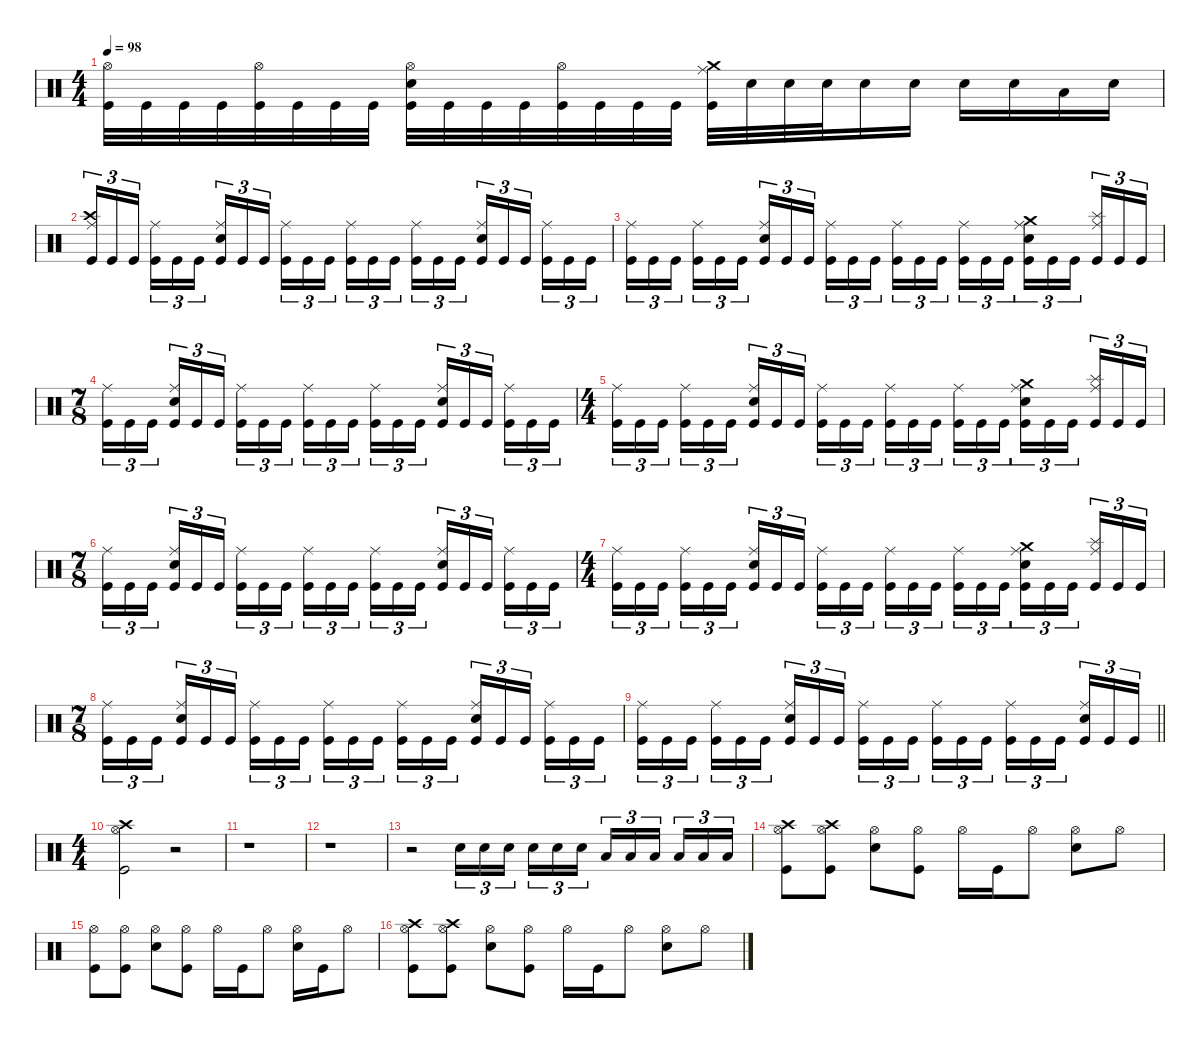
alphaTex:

\defaultSystemsLayout 4
\hideDynamics
\bracketExtendMode nobrackets
\singleTrackTrackNamePolicy hidden
\multiTrackTrackNamePolicy hidden
\firstSystemTrackNameMode fullname
\otherSystemsTrackNameOrientation horizontal
\track ("Drums" "drm.") {instrument percussion}
\staff {score}
\articulation defaults
\ts (4 4)
\tempo 98
\clef neutral
\ks aminor
("Hi-Hat (open)" "Kick (hit)").32{dy f beam Down} "Kick (hit)".32{beam Down} "Kick (hit)".32{beam Down} "Kick (hit)".32{beam Down} ("Hi-Hat (open)" "Kick (hit)").32{beam Down} "Kick (hit)".32{beam Down} "Kick (hit)".32{beam Down} "Kick (hit)".32{beam Down} ("Hi-Hat (open)" "Snare (hit) 2" "Kick (hit)").32{beam Down} "Kick (hit)".32{beam Down} "Kick (hit)".32{beam Down} "Kick (hit)".32{beam Down} ("Hi-Hat (open)" "Kick (hit)").32{beam Down} "Kick (hit)".32{beam Down} "Kick (hit)".32{beam Down} "Kick (hit)".32{beam Down} ("Crash medium (hit)" "Ride (middle)" "Kick (hit)").32{beam Down} "Snare (hit) 2".32{dy mf beam Down} "Snare (hit) 2".32{beam Down} "Snare (hit) 2".32{dy f beam Down} "Snare (hit) 2".16{beam Down} "Snare (hit) 2".16{beam Down} "Snare (hit) 2".16{beam Down} "Snare (hit) 2".16{beam Down} "Low Tom (hit)".16{beam Down} "Snare (hit) 2".16{beam Down} |
("Crash high (hit)" "Ride (middle)" "Kick (hit)").16{tu (3 2) beam Up} "Kick (hit)".16{tu (3 2) beam Up} "Kick (hit)".16{tu (3 2) beam Up} ("Ride (middle)" "Kick (hit)").16{tu (3 2) beam Down} "Kick (hit)".16{tu (3 2) beam Down} "Kick (hit)".16{tu (3 2) beam Down} ("Ride (middle)" "Snare (hit) 2" "Kick (hit)").16{tu (3 2) beam Up} "Kick (hit)".16{tu (3 2) beam Up} "Kick (hit)".16{tu (3 2) beam Up} ("Ride (middle)" "Kick (hit)").16{tu (3 2) beam Down} "Kick (hit)".16{tu (3 2) beam Down} "Kick (hit)".16{tu (3 2) beam Down} ("Ride (middle)" "Kick (hit)").16{tu (3 2) beam Down} "Kick (hit)".16{tu (3 2) beam Down} "Kick (hit)".16{tu (3 2) beam Down} ("Ride (middle)" "Kick (hit)").16{tu (3 2) beam Down} "Kick (hit)".16{tu (3 2) beam Down} "Kick (hit)".16{tu (3 2) beam Down} ("Ride (middle)" "Snare (hit) 2" "Kick (hit)").16{tu (3 2) beam Up} "Kick (hit)".16{tu (3 2) beam Up} "Kick (hit)".16{tu (3 2) beam Up} ("Ride (middle)" "Kick (hit)").16{tu (3 2) beam Down} "Kick (hit)".16{tu (3 2) beam Down} "Kick (hit)".16{tu (3 2) beam Down} |
("Ride (middle)" "Kick (hit)").16{tu (3 2) beam Down} "Kick (hit)".16{tu (3 2) beam Down} "Kick (hit)".16{tu (3 2) beam Down} ("Ride (middle)" "Kick (hit)").16{tu (3 2) beam Down} "Kick (hit)".16{tu (3 2) beam Down} "Kick (hit)".16{tu (3 2) beam Down} ("Ride (middle)" "Snare (hit) 2" "Kick (hit)").16{tu (3 2) beam Up} "Kick (hit)".16{tu (3 2) beam Up} "Kick (hit)".16{tu (3 2) beam Up} ("Ride (middle)" "Kick (hit)").16{tu (3 2) beam Down} "Kick (hit)".16{tu (3 2) beam Down} "Kick (hit)".16{tu (3 2) beam Down} ("Ride (middle)" "Kick (hit)").16{tu (3 2) beam Down} "Kick (hit)".16{tu (3 2) beam Down} "Kick (hit)".16{tu (3 2) beam Down} ("Ride (middle)" "Kick (hit)").16{tu (3 2) beam Down} "Kick (hit)".16{tu (3 2) beam Down} "Kick (hit)".16{tu (3 2) beam Down} ("Crash medium (hit)" "Ride (middle)" "Snare (hit) 2" "Kick (hit)").16{tu (3 2) beam Down} "Kick (hit)".16{tu (3 2) beam Down} "Kick (hit)".16{tu (3 2) beam Down} ("Splash (hit)" "Ride (middle)" "Kick (hit)").16{tu (3 2) beam Up} "Kick (hit)".16{tu (3 2) beam Up} "Kick (hit)".16{tu (3 2) beam Up} |
\ts (7 8)
\beaming (8 3 2 2)
("Ride (middle)" "Kick (hit)").16{tu (3 2) beam Down} "Kick (hit)".16{tu (3 2) beam Down} "Kick (hit)".16{tu (3 2) beam Down} ("Ride (middle)" "Snare (hit) 2" "Kick (hit)").16{tu (3 2) beam Up} "Kick (hit)".16{tu (3 2) beam Up} "Kick (hit)".16{tu (3 2) beam Up} ("Ride (middle)" "Kick (hit)").16{tu (3 2) beam Down} "Kick (hit)".16{tu (3 2) beam Down} "Kick (hit)".16{tu (3 2) beam Down} ("Ride (middle)" "Kick (hit)").16{tu (3 2) beam Down} "Kick (hit)".16{tu (3 2) beam Down} "Kick (hit)".16{tu (3 2) beam Down} ("Ride (middle)" "Kick (hit)").16{tu (3 2) beam Down} "Kick (hit)".16{tu (3 2) beam Down} "Kick (hit)".16{tu (3 2) beam Down} ("Ride (middle)" "Snare (hit) 2" "Kick (hit)").16{tu (3 2) beam Up} "Kick (hit)".16{tu (3 2) beam Up} "Kick (hit)".16{tu (3 2) beam Up} ("Ride (middle)" "Kick (hit)").16{tu (3 2) beam Down} "Kick (hit)".16{tu (3 2) beam Down} "Kick (hit)".16{tu (3 2) beam Down} |
\ts (4 4)
\beaming (8 2 2 2 2)
("Ride (middle)" "Kick (hit)").16{tu (3 2) beam Down} "Kick (hit)".16{tu (3 2) beam Down} "Kick (hit)".16{tu (3 2) beam Down} ("Ride (middle)" "Kick (hit)").16{tu (3 2) beam Down} "Kick (hit)".16{tu (3 2) beam Down} "Kick (hit)".16{tu (3 2) beam Down} ("Ride (middle)" "Snare (hit) 2" "Kick (hit)").16{tu (3 2) beam Up} "Kick (hit)".16{tu (3 2) beam Up} "Kick (hit)".16{tu (3 2) beam Up} ("Ride (middle)" "Kick (hit)").16{tu (3 2) beam Down} "Kick (hit)".16{tu (3 2) beam Down} "Kick (hit)".16{tu (3 2) beam Down} ("Ride (middle)" "Kick (hit)").16{tu (3 2) beam Down} "Kick (hit)".16{tu (3 2) beam Down} "Kick (hit)".16{tu (3 2) beam Down} ("Ride (middle)" "Kick (hit)").16{tu (3 2) beam Down} "Kick (hit)".16{tu (3 2) beam Down} "Kick (hit)".16{tu (3 2) beam Down} ("Crash medium (hit)" "Ride (middle)" "Snare (hit) 2" "Kick (hit)").16{tu (3 2) beam Down} "Kick (hit)".16{tu (3 2) beam Down} "Kick (hit)".16{tu (3 2) beam Down} ("Splash (hit)" "Ride (middle)" "Kick (hit)").16{tu (3 2) beam Up} "Kick (hit)".16{tu (3 2) beam Up} "Kick (hit)".16{tu (3 2) beam Up} |
\ts (7 8)
\beaming (8 3 2 2)
("Ride (middle)" "Kick (hit)").16{tu (3 2) beam Down} "Kick (hit)".16{tu (3 2) beam Down} "Kick (hit)".16{tu (3 2) beam Down} ("Ride (middle)" "Snare (hit) 2" "Kick (hit)").16{tu (3 2) beam Up} "Kick (hit)".16{tu (3 2) beam Up} "Kick (hit)".16{tu (3 2) beam Up} ("Ride (middle)" "Kick (hit)").16{tu (3 2) beam Down} "Kick (hit)".16{tu (3 2) beam Down} "Kick (hit)".16{tu (3 2) beam Down} ("Ride (middle)" "Kick (hit)").16{tu (3 2) beam Down} "Kick (hit)".16{tu (3 2) beam Down} "Kick (hit)".16{tu (3 2) beam Down} ("Ride (middle)" "Kick (hit)").16{tu (3 2) beam Down} "Kick (hit)".16{tu (3 2) beam Down} "Kick (hit)".16{tu (3 2) beam Down} ("Ride (middle)" "Snare (hit) 2" "Kick (hit)").16{tu (3 2) beam Up} "Kick (hit)".16{tu (3 2) beam Up} "Kick (hit)".16{tu (3 2) beam Up} ("Ride (middle)" "Kick (hit)").16{tu (3 2) beam Down} "Kick (hit)".16{tu (3 2) beam Down} "Kick (hit)".16{tu (3 2) beam Down} |
\ts (4 4)
\beaming (8 2 2 2 2)
("Ride (middle)" "Kick (hit)").16{tu (3 2) beam Down} "Kick (hit)".16{tu (3 2) beam Down} "Kick (hit)".16{tu (3 2) beam Down} ("Ride (middle)" "Kick (hit)").16{tu (3 2) beam Down} "Kick (hit)".16{tu (3 2) beam Down} "Kick (hit)".16{tu (3 2) beam Down} ("Ride (middle)" "Snare (hit) 2" "Kick (hit)").16{tu (3 2) beam Up} "Kick (hit)".16{tu (3 2) beam Up} "Kick (hit)".16{tu (3 2) beam Up} ("Ride (middle)" "Kick (hit)").16{tu (3 2) beam Down} "Kick (hit)".16{tu (3 2) beam Down} "Kick (hit)".16{tu (3 2) beam Down} ("Ride (middle)" "Kick (hit)").16{tu (3 2) beam Down} "Kick (hit)".16{tu (3 2) beam Down} "Kick (hit)".16{tu (3 2) beam Down} ("Ride (middle)" "Kick (hit)").16{tu (3 2) beam Down} "Kick (hit)".16{tu (3 2) beam Down} "Kick (hit)".16{tu (3 2) beam Down} ("Crash medium (hit)" "Ride (middle)" "Snare (hit) 2" "Kick (hit)").16{tu (3 2) beam Down} "Kick (hit)".16{tu (3 2) beam Down} "Kick (hit)".16{tu (3 2) beam Down} ("Splash (hit)" "Ride (middle)" "Kick (hit)").16{tu (3 2) beam Up} "Kick (hit)".16{tu (3 2) beam Up} "Kick (hit)".16{tu (3 2) beam Up} |
\ts (7 8)
\beaming (8 3 2 2)
("Ride (middle)" "Kick (hit)").16{tu (3 2) beam Down} "Kick (hit)".16{tu (3 2) beam Down} "Kick (hit)".16{tu (3 2) beam Down} ("Ride (middle)" "Snare (hit) 2" "Kick (hit)").16{tu (3 2) beam Up} "Kick (hit)".16{tu (3 2) beam Up} "Kick (hit)".16{tu (3 2) beam Up} ("Ride (middle)" "Kick (hit)").16{tu (3 2) beam Down} "Kick (hit)".16{tu (3 2) beam Down} "Kick (hit)".16{tu (3 2) beam Down} ("Ride (middle)" "Kick (hit)").16{tu (3 2) beam Down} "Kick (hit)".16{tu (3 2) beam Down} "Kick (hit)".16{tu (3 2) beam Down} ("Ride (middle)" "Kick (hit)").16{tu (3 2) beam Down} "Kick (hit)".16{tu (3 2) beam Down} "Kick (hit)".16{tu (3 2) beam Down} ("Ride (middle)" "Snare (hit) 2" "Kick (hit)").16{tu (3 2) beam Up} "Kick (hit)".16{tu (3 2) beam Up} "Kick (hit)".16{tu (3 2) beam Up} ("Ride (middle)" "Kick (hit)").16{tu (3 2) beam Down} "Kick (hit)".16{tu (3 2) beam Down} "Kick (hit)".16{tu (3 2) beam Down} |
\barLineRight lightlight
("Ride (middle)" "Kick (hit)").16{tu (3 2) beam Down} "Kick (hit)".16{tu (3 2) beam Down} "Kick (hit)".16{tu (3 2) beam Down} ("Ride (middle)" "Kick (hit)").16{tu (3 2) beam Down} "Kick (hit)".16{tu (3 2) beam Down} "Kick (hit)".16{tu (3 2) beam Down} ("Ride (middle)" "Snare (hit) 2" "Kick (hit)").16{tu (3 2) beam Up} "Kick (hit)".16{tu (3 2) beam Up} "Kick (hit)".16{tu (3 2) beam Up} ("Ride (middle)" "Kick (hit)").16{tu (3 2) beam Down} "Kick (hit)".16{tu (3 2) beam Down} "Kick (hit)".16{tu (3 2) beam Down} ("Ride (middle)" "Kick (hit)").16{tu (3 2) beam Down} "Kick (hit)".16{tu (3 2) beam Down} "Kick (hit)".16{tu (3 2) beam Down} ("Ride (middle)" "Kick (hit)").16{tu (3 2) beam Down} "Kick (hit)".16{tu (3 2) beam Down} "Kick (hit)".16{tu (3 2) beam Down} ("Ride (middle)" "Snare (hit) 2" "Kick (hit)").16{tu (3 2) beam Up} "Kick (hit)".16{tu (3 2) beam Up} "Kick (hit)".16{tu (3 2) beam Up} |
\ts (4 4)
\beaming (8 2 2 2 2)
("Crash high (hit)" "Hi-Hat (open)" "Kick (hit)").2{beam Down} r.2{beam Down} |
r.1{beam Down} |
r.1{beam Down} |
r.2{beam Down} "Snare (hit) 2".16{tu (3 2) beam Down} "Snare (hit) 2".16{tu (3 2) beam Down} "Snare (hit) 2".16{tu (3 2) beam Down} "Snare (hit) 2".16{tu (3 2) beam Down} "Snare (hit) 2".16{tu (3 2) beam Down} "Snare (hit) 2".16{tu (3 2) beam Down} "Low Tom (hit)".16{tu (3 2) beam Up} "Low Tom (hit)".16{tu (3 2) beam Up} "Low Tom (hit)".16{tu (3 2) beam Up} "Low Tom (hit)".16{tu (3 2) beam Up} "Low Tom (hit)".16{tu (3 2) beam Up} "Low Tom (hit)".16{tu (3 2) beam Up} |
("Crash high (hit)" "Hi-Hat (open)" "Kick (hit)").8{beam Down} ("Crash high (hit)" "Hi-Hat (open)" "Kick (hit)").8{beam Down} ("Hi-Hat (open)" "Snare (hit) 2").8{beam Down} ("Hi-Hat (open)" "Kick (hit)").8{beam Down} "Hi-Hat (open)".16{beam Down} "Kick (hit)".16{beam Down} "Hi-Hat (open)".8{beam Down} ("Hi-Hat (open)" "Snare (hit) 2").8{beam Down} "Hi-Hat (open)".8{beam Down} |
("Hi-Hat (open)" "Kick (hit)").8{beam Down} ("Hi-Hat (open)" "Kick (hit)").8{beam Down} ("Hi-Hat (open)" "Snare (hit) 2").8{beam Down} ("Hi-Hat (open)" "Kick (hit)").8{beam Down} "Hi-Hat (open)".16{beam Down} "Kick (hit)".16{beam Down} "Hi-Hat (open)".8{beam Down} ("Hi-Hat (open)" "Snare (hit) 2").16{beam Down} "Kick (hit)".16{beam Down} "Hi-Hat (open)".8{beam Down} |
("Crash high (hit)" "Hi-Hat (open)" "Kick (hit)").8{beam Down} ("Crash high (hit)" "Hi-Hat (open)" "Kick (hit)").8{beam Down} ("Hi-Hat (open)" "Snare (hit) 2").8{beam Down} ("Hi-Hat (open)" "Kick (hit)").8{beam Down} "Hi-Hat (open)".16{beam Down} "Kick (hit)".16{beam Down} "Hi-Hat (open)".8{beam Down} ("Hi-Hat (open)" "Snare (hit) 2").8{beam Down} "Hi-Hat (open)".8{beam Down}
